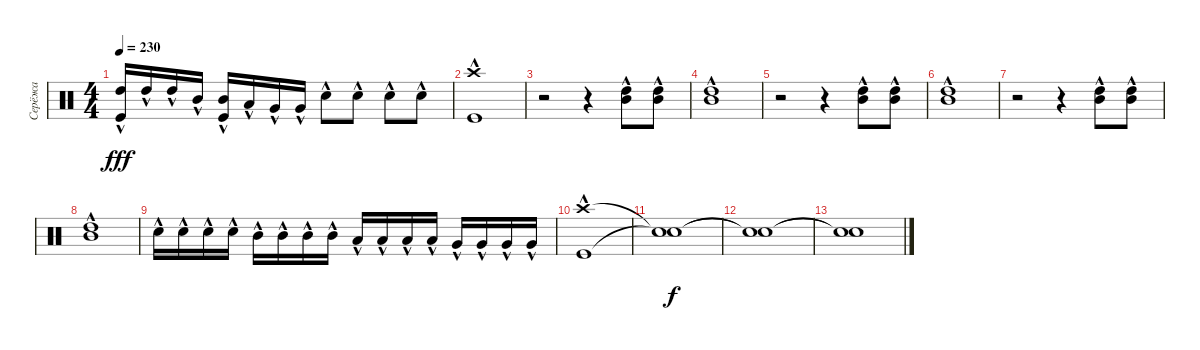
\track ("Серёжа" "Серёжа") {instrument percussion}
\staff {score}
\articulation defaults
\ts (4 4)
\tempo 230
\clef neutral
\ks c
("High Tom (hit)"{hac} "Kick (hit)"{hac}).16{dy fff} "High Tom (hit)"{hac}.16 "High Tom (hit)"{hac}.16 "Mid Tom (hit)"{hac}.16 ("Mid Tom (hit)"{hac} "Kick (hit)"{hac}).16 "Low Tom (hit)"{hac}.16 "Very Low Tom (hit)"{hac}.16 "Very Low Tom (hit)"{hac}.16 "Snare (hit) 2"{hac}.8 "Snare (hit) 2"{hac}.8 "Snare (hit) 2"{hac}.8 "Snare (hit) 2"{hac}.8 |
("Crash high (hit)"{hac} "Kick (hit)"{hac}).1 |
r.2 r.4 ("Mid Tom (hit)"{hac} "High Tom (hit)"{hac}).8 ("High Tom (hit)"{hac} "Mid Tom (hit)"{hac}).8 |
("High Tom (hit)"{hac} "Mid Tom (hit)"{hac}).1 |
r.2 r.4 ("Mid Tom (hit)"{hac} "High Tom (hit)"{hac}).8 ("High Tom (hit)"{hac} "Mid Tom (hit)"{hac}).8 |
("High Tom (hit)"{hac} "Mid Tom (hit)"{hac}).1 |
r.2 r.4 ("Mid Tom (hit)"{hac} "High Tom (hit)"{hac}).8 ("High Tom (hit)"{hac} "Mid Tom (hit)"{hac}).8 |
("High Tom (hit)"{hac} "Mid Tom (hit)"{hac}).1 |
"Snare (hit) 2"{hac}.16 "Snare (hit) 2"{hac}.16 "Snare (hit) 2"{hac}.16 "Snare (hit) 2"{hac}.16 "Mid Tom (hit)"{hac}.16 "Mid Tom (hit)"{hac}.16 "Mid Tom (hit)"{hac}.16 "Mid Tom (hit)"{hac}.16 "Low Tom (hit)"{hac}.16 "Low Tom (hit)"{hac}.16 "Low Tom (hit)"{hac}.16 "Low Tom (hit)"{hac}.16 "Very Low Tom (hit)"{hac}.16 "Very Low Tom (hit)"{hac}.16 "Very Low Tom (hit)"{hac}.16 "Very Low Tom (hit)"{hac}.16 |
("Crash high (hit)"{hac} "Kick (hit)"{hac}).1 |
("Snare (hit)"{t} "Snare (hit)"{t}).1{dy f} |
("Snare (hit)"{t} "Snare (hit)"{t}).1 |
("Snare (hit)"{t} "Snare (hit)"{t}).1
